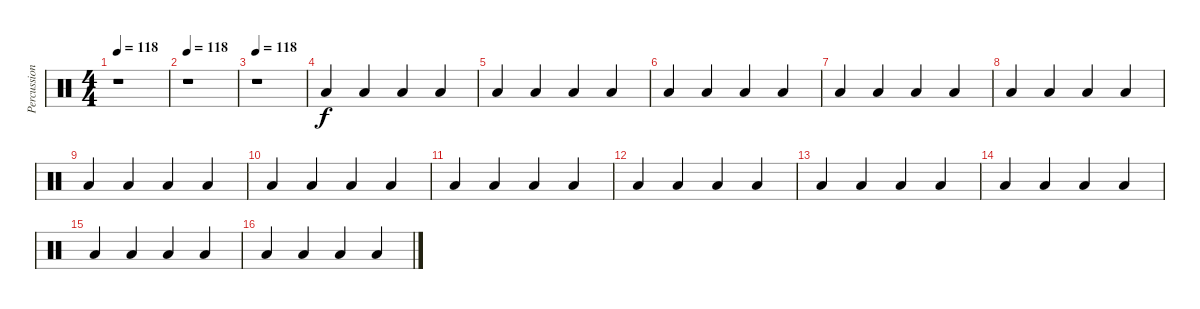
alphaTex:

\track ("Percussions" "Percussion") {instrument percussion}
\staff {score}
\articulation defaults
\ts (4 4)
\tempo 118
\clef neutral
\ks c
r.1{dy f} |
\tempo 118
r.1 |
\tempo 118
r.1 |
"Low Floor Tom (hit)".4{volume 9} "Low Floor Tom (hit)".4 "Low Floor Tom (hit)".4 "Low Floor Tom (hit)".4 |
"Low Floor Tom (hit)".4{volume 9} "Low Floor Tom (hit)".4 "Low Floor Tom (hit)".4 "Low Floor Tom (hit)".4 |
"Low Floor Tom (hit)".4{volume 9} "Low Floor Tom (hit)".4 "Low Floor Tom (hit)".4 "Low Floor Tom (hit)".4 |
"Low Floor Tom (hit)".4{volume 9} "Low Floor Tom (hit)".4 "Low Floor Tom (hit)".4 "Low Floor Tom (hit)".4 |
"Low Floor Tom (hit)".4{volume 9} "Low Floor Tom (hit)".4 "Low Floor Tom (hit)".4 "Low Floor Tom (hit)".4 |
"Low Floor Tom (hit)".4{volume 9} "Low Floor Tom (hit)".4 "Low Floor Tom (hit)".4 "Low Floor Tom (hit)".4 |
"Low Floor Tom (hit)".4{volume 9} "Low Floor Tom (hit)".4 "Low Floor Tom (hit)".4 "Low Floor Tom (hit)".4 |
"Low Floor Tom (hit)".4{volume 9} "Low Floor Tom (hit)".4 "Low Floor Tom (hit)".4 "Low Floor Tom (hit)".4 |
"Low Floor Tom (hit)".4{volume 9} "Low Floor Tom (hit)".4 "Low Floor Tom (hit)".4 "Low Floor Tom (hit)".4 |
"Low Floor Tom (hit)".4{volume 9} "Low Floor Tom (hit)".4 "Low Floor Tom (hit)".4 "Low Floor Tom (hit)".4 |
"Low Floor Tom (hit)".4{volume 9} "Low Floor Tom (hit)".4 "Low Floor Tom (hit)".4 "Low Floor Tom (hit)".4 |
"Low Floor Tom (hit)".4{volume 9} "Low Floor Tom (hit)".4 "Low Floor Tom (hit)".4 "Low Floor Tom (hit)".4 |
"Low Floor Tom (hit)".4{volume 9} "Low Floor Tom (hit)".4 "Low Floor Tom (hit)".4 "Low Floor Tom (hit)".4
